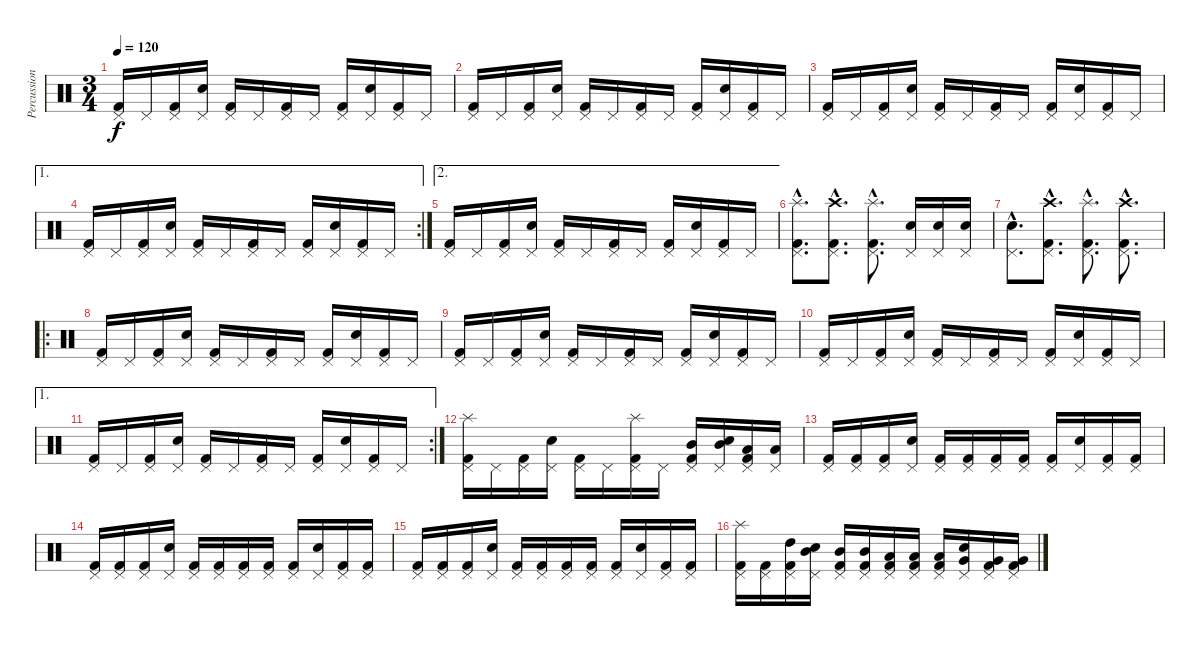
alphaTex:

\track ("Percussion" "Percussion") {instrument percussion}
\staff {score}
\articulation defaults
\ts (3 4)
\tempo 120
\clef neutral
\ks c
("Kick (hit) 2" "Pedal Hi-Hat (hit)").16{dy f} "Pedal Hi-Hat (hit)".16 ("Kick (hit) 2" "Pedal Hi-Hat (hit)").16 ("Pedal Hi-Hat (hit)" "Electric Snare (hit)").16 ("Kick (hit) 2" "Pedal Hi-Hat (hit)").16 "Pedal Hi-Hat (hit)".16 ("Kick (hit) 2" "Pedal Hi-Hat (hit)").16 "Pedal Hi-Hat (hit)".16 ("Kick (hit) 2" "Pedal Hi-Hat (hit)").16 ("Pedal Hi-Hat (hit)" "Electric Snare (hit)").16 ("Kick (hit) 2" "Pedal Hi-Hat (hit)").16 "Pedal Hi-Hat (hit)".16 |
("Kick (hit) 2" "Pedal Hi-Hat (hit)").16 "Pedal Hi-Hat (hit)".16 ("Kick (hit) 2" "Pedal Hi-Hat (hit)").16 ("Pedal Hi-Hat (hit)" "Electric Snare (hit)").16 ("Kick (hit) 2" "Pedal Hi-Hat (hit)").16 "Pedal Hi-Hat (hit)".16 ("Kick (hit) 2" "Pedal Hi-Hat (hit)").16 "Pedal Hi-Hat (hit)".16 ("Kick (hit) 2" "Pedal Hi-Hat (hit)").16 ("Pedal Hi-Hat (hit)" "Electric Snare (hit)").16 ("Kick (hit) 2" "Pedal Hi-Hat (hit)").16 "Pedal Hi-Hat (hit)".16 |
("Kick (hit) 2" "Pedal Hi-Hat (hit)").16 "Pedal Hi-Hat (hit)".16 ("Kick (hit) 2" "Pedal Hi-Hat (hit)").16 ("Pedal Hi-Hat (hit)" "Electric Snare (hit)").16 ("Kick (hit) 2" "Pedal Hi-Hat (hit)").16 "Pedal Hi-Hat (hit)".16 ("Kick (hit) 2" "Pedal Hi-Hat (hit)").16 "Pedal Hi-Hat (hit)".16 ("Kick (hit) 2" "Pedal Hi-Hat (hit)").16 ("Pedal Hi-Hat (hit)" "Electric Snare (hit)").16 ("Kick (hit) 2" "Pedal Hi-Hat (hit)").16 "Pedal Hi-Hat (hit)".16 |
\ae 1
\rc 2
("Kick (hit) 2" "Pedal Hi-Hat (hit)").16 "Pedal Hi-Hat (hit)".16 ("Kick (hit) 2" "Pedal Hi-Hat (hit)").16 ("Pedal Hi-Hat (hit)" "Electric Snare (hit)").16 ("Kick (hit) 2" "Pedal Hi-Hat (hit)").16 "Pedal Hi-Hat (hit)".16 ("Kick (hit) 2" "Pedal Hi-Hat (hit)").16 "Pedal Hi-Hat (hit)".16 ("Kick (hit) 2" "Pedal Hi-Hat (hit)").16 ("Pedal Hi-Hat (hit)" "Electric Snare (hit)").16 ("Kick (hit) 2" "Pedal Hi-Hat (hit)").16 "Pedal Hi-Hat (hit)".16 |
\ae 2
("Kick (hit) 2" "Pedal Hi-Hat (hit)").16 "Pedal Hi-Hat (hit)".16 ("Kick (hit) 2" "Pedal Hi-Hat (hit)").16 ("Pedal Hi-Hat (hit)" "Electric Snare (hit)").16 ("Kick (hit) 2" "Pedal Hi-Hat (hit)").16 "Pedal Hi-Hat (hit)".16 ("Kick (hit) 2" "Pedal Hi-Hat (hit)").16 "Pedal Hi-Hat (hit)".16 ("Kick (hit) 2" "Pedal Hi-Hat (hit)").16 ("Pedal Hi-Hat (hit)" "Electric Snare (hit)").16 ("Kick (hit) 2" "Pedal Hi-Hat (hit)").16 "Pedal Hi-Hat (hit)".16 |
("Kick (hit) 2"{hac} "Pedal Hi-Hat (hit)"{hac} "Splash (hit)"{hac}).8{d} ("Kick (hit) 2"{hac} "Pedal Hi-Hat (hit)"{hac} "Crash high (hit)"{hac}).8{d} ("Kick (hit) 2"{hac} "Pedal Hi-Hat (hit)"{hac} "Splash (hit)"{hac}).8{d} ("Pedal Hi-Hat (hit)" "Electric Snare (hit)").16 ("Pedal Hi-Hat (hit)" "Electric Snare (hit)").16 ("Pedal Hi-Hat (hit)" "Electric Snare (hit)").16 |
("Pedal Hi-Hat (hit)"{hac} "Electric Snare (hit)"{hac}).8{d} ("Kick (hit) 2"{hac} "Pedal Hi-Hat (hit)"{hac} "Crash high (hit)"{hac}).8{d} ("Kick (hit) 2"{hac} "Pedal Hi-Hat (hit)"{hac} "Splash (hit)"{hac}).8{d} ("Kick (hit) 2"{hac} "Pedal Hi-Hat (hit)"{hac} "Crash high (hit)"{hac}).8{d} |
\ro
("Kick (hit) 2" "Pedal Hi-Hat (hit)").16 "Pedal Hi-Hat (hit)".16 ("Kick (hit) 2" "Pedal Hi-Hat (hit)").16 ("Pedal Hi-Hat (hit)" "Electric Snare (hit)").16 ("Kick (hit) 2" "Pedal Hi-Hat (hit)").16 "Pedal Hi-Hat (hit)".16 ("Kick (hit) 2" "Pedal Hi-Hat (hit)").16 "Pedal Hi-Hat (hit)".16 ("Kick (hit) 2" "Pedal Hi-Hat (hit)").16 ("Pedal Hi-Hat (hit)" "Electric Snare (hit)").16 ("Kick (hit) 2" "Pedal Hi-Hat (hit)").16 "Pedal Hi-Hat (hit)".16 |
("Kick (hit) 2" "Pedal Hi-Hat (hit)").16 "Pedal Hi-Hat (hit)".16 ("Kick (hit) 2" "Pedal Hi-Hat (hit)").16 ("Pedal Hi-Hat (hit)" "Electric Snare (hit)").16 ("Kick (hit) 2" "Pedal Hi-Hat (hit)").16 "Pedal Hi-Hat (hit)".16 ("Kick (hit) 2" "Pedal Hi-Hat (hit)").16 "Pedal Hi-Hat (hit)".16 ("Kick (hit) 2" "Pedal Hi-Hat (hit)").16 ("Pedal Hi-Hat (hit)" "Electric Snare (hit)").16 ("Kick (hit) 2" "Pedal Hi-Hat (hit)").16 "Pedal Hi-Hat (hit)".16 |
("Kick (hit) 2" "Pedal Hi-Hat (hit)").16 "Pedal Hi-Hat (hit)".16 ("Kick (hit) 2" "Pedal Hi-Hat (hit)").16 ("Pedal Hi-Hat (hit)" "Electric Snare (hit)").16 ("Kick (hit) 2" "Pedal Hi-Hat (hit)").16 "Pedal Hi-Hat (hit)".16 ("Kick (hit) 2" "Pedal Hi-Hat (hit)").16 "Pedal Hi-Hat (hit)".16 ("Kick (hit) 2" "Pedal Hi-Hat (hit)").16 ("Pedal Hi-Hat (hit)" "Electric Snare (hit)").16 ("Kick (hit) 2" "Pedal Hi-Hat (hit)").16 "Pedal Hi-Hat (hit)".16 |
\ae 1
\rc 2
("Kick (hit) 2" "Pedal Hi-Hat (hit)").16 "Pedal Hi-Hat (hit)".16 ("Kick (hit) 2" "Pedal Hi-Hat (hit)").16 ("Pedal Hi-Hat (hit)" "Electric Snare (hit)").16 ("Kick (hit) 2" "Pedal Hi-Hat (hit)").16 "Pedal Hi-Hat (hit)".16 ("Kick (hit) 2" "Pedal Hi-Hat (hit)").16 "Pedal Hi-Hat (hit)".16 ("Kick (hit) 2" "Pedal Hi-Hat (hit)").16 ("Pedal Hi-Hat (hit)" "Electric Snare (hit)").16 ("Kick (hit) 2" "Pedal Hi-Hat (hit)").16 "Pedal Hi-Hat (hit)".16 |
("Kick (hit) 2" "Pedal Hi-Hat (hit)" "Splash (hit)").16 "Pedal Hi-Hat (hit)".16 ("Kick (hit) 2" "Pedal Hi-Hat (hit)").16 ("Pedal Hi-Hat (hit)" "Electric Snare (hit)").16 ("Kick (hit) 2" "Pedal Hi-Hat (hit)").16 "Pedal Hi-Hat (hit)".16 ("Kick (hit) 2" "Pedal Hi-Hat (hit)" "Splash (hit)").16 "Pedal Hi-Hat (hit)".16 ("Kick (hit) 2" "Pedal Hi-Hat (hit)" "Mid Tom (hit)").16 ("Pedal Hi-Hat (hit)" "Electric Snare (hit)" "Mid Tom (hit)").16 ("Kick (hit) 2" "Pedal Hi-Hat (hit)" "Low Tom (hit)").16 ("Pedal Hi-Hat (hit)" "Low Tom (hit)").16 |
("Kick (hit) 2" "Pedal Hi-Hat (hit)").16 ("Kick (hit) 2" "Pedal Hi-Hat (hit)").16 ("Kick (hit) 2" "Pedal Hi-Hat (hit)").16 ("Pedal Hi-Hat (hit)" "Electric Snare (hit)").16 ("Kick (hit) 2" "Pedal Hi-Hat (hit)").16 ("Kick (hit) 2" "Pedal Hi-Hat (hit)").16 ("Kick (hit) 2" "Pedal Hi-Hat (hit)").16 ("Kick (hit) 2" "Pedal Hi-Hat (hit)").16 ("Kick (hit) 2" "Pedal Hi-Hat (hit)").16 ("Pedal Hi-Hat (hit)" "Electric Snare (hit)").16 ("Kick (hit) 2" "Pedal Hi-Hat (hit)").16 ("Kick (hit) 2" "Pedal Hi-Hat (hit)").16 |
("Kick (hit) 2" "Pedal Hi-Hat (hit)").16 ("Kick (hit) 2" "Pedal Hi-Hat (hit)").16 ("Kick (hit) 2" "Pedal Hi-Hat (hit)").16 ("Pedal Hi-Hat (hit)" "Electric Snare (hit)").16 ("Kick (hit) 2" "Pedal Hi-Hat (hit)").16 ("Kick (hit) 2" "Pedal Hi-Hat (hit)").16 ("Kick (hit) 2" "Pedal Hi-Hat (hit)").16 ("Kick (hit) 2" "Pedal Hi-Hat (hit)").16 ("Kick (hit) 2" "Pedal Hi-Hat (hit)").16 ("Pedal Hi-Hat (hit)" "Electric Snare (hit)").16 ("Kick (hit) 2" "Pedal Hi-Hat (hit)").16 ("Kick (hit) 2" "Pedal Hi-Hat (hit)").16 |
("Kick (hit) 2" "Pedal Hi-Hat (hit)").16 ("Kick (hit) 2" "Pedal Hi-Hat (hit)").16 ("Kick (hit) 2" "Pedal Hi-Hat (hit)").16 ("Pedal Hi-Hat (hit)" "Electric Snare (hit)").16 ("Kick (hit) 2" "Pedal Hi-Hat (hit)").16 ("Kick (hit) 2" "Pedal Hi-Hat (hit)").16 ("Kick (hit) 2" "Pedal Hi-Hat (hit)").16 ("Kick (hit) 2" "Pedal Hi-Hat (hit)").16 ("Kick (hit) 2" "Pedal Hi-Hat (hit)").16 ("Pedal Hi-Hat (hit)" "Electric Snare (hit)").16 ("Kick (hit) 2" "Pedal Hi-Hat (hit)").16 ("Kick (hit) 2" "Pedal Hi-Hat (hit)").16 |
("Kick (hit) 2" "Pedal Hi-Hat (hit)" "Splash (hit)").16 ("Kick (hit) 2" "Pedal Hi-Hat (hit)").16 ("Kick (hit) 2" "Pedal Hi-Hat (hit)" "High Tom (hit)").16 ("Pedal Hi-Hat (hit)" "Electric Snare (hit)" "Mid Tom (hit)").16 ("Kick (hit) 2" "Pedal Hi-Hat (hit)" "Mid Tom (hit)").16 ("Kick (hit) 2" "Pedal Hi-Hat (hit)" "Mid Tom (hit)").16 ("Kick (hit) 2" "Pedal Hi-Hat (hit)" "Low Tom (hit)").16 ("Kick (hit) 2" "Pedal Hi-Hat (hit)" "Low Tom (hit)").16 ("Kick (hit) 2" "Pedal Hi-Hat (hit)" "Low Tom (hit)").16 ("Pedal Hi-Hat (hit)" "Electric Snare (hit)" "Very Low Tom (hit)").16 ("Kick (hit) 2" "Pedal Hi-Hat (hit)" "Very Low Tom (hit)").16 ("Kick (hit) 2" "Pedal Hi-Hat (hit)" "Very Low Tom (hit)").16
